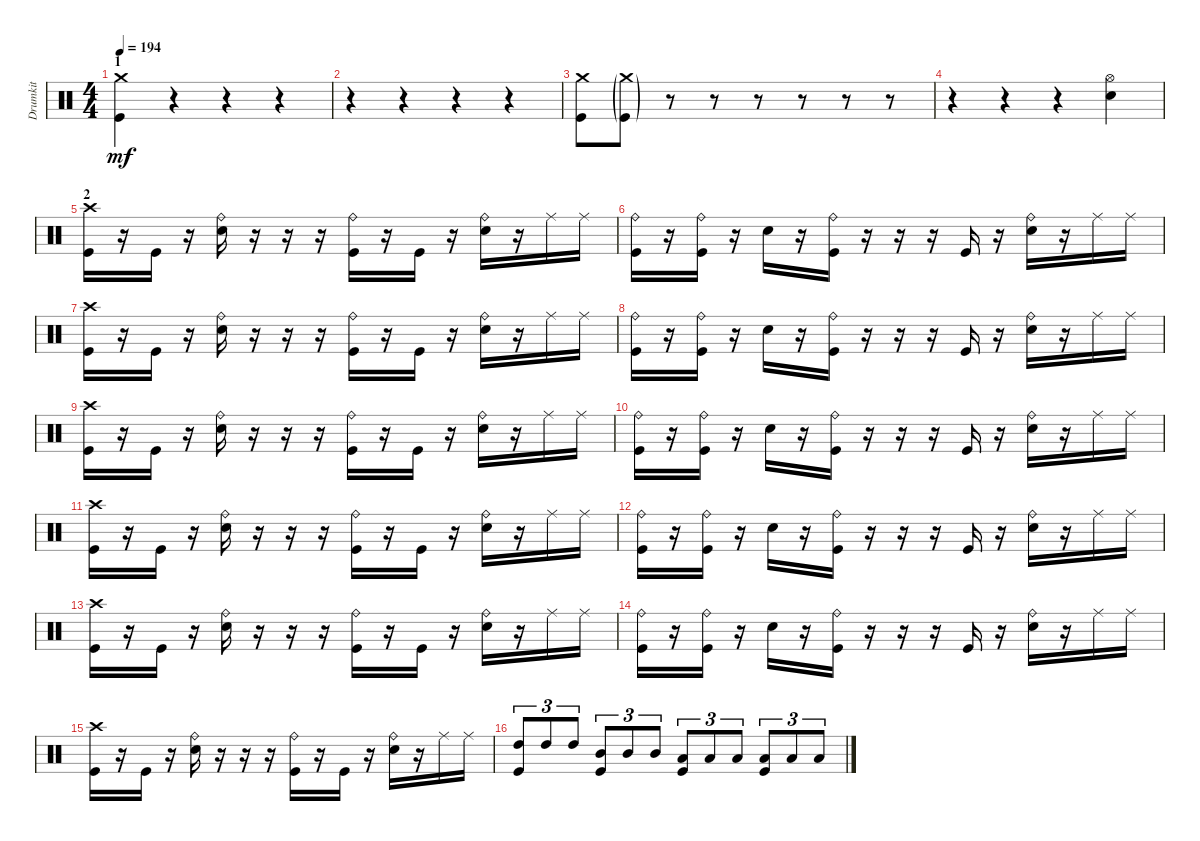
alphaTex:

\track ("Drumkit" "Drumkit") {instrument percussion}
\staff {score}
\articulation defaults
\ts (4 4)
\section ("" "1")
\tempo 194
\clef neutral
\ks c
("Kick (hit)" "Crash medium (hit)").4{dy mf} r.4 r.4 r.4 |
r.4 r.4 r.4 r.4 |
("Kick (hit)" "Crash medium (hit)").8 ("Kick (hit)"{g} "Crash medium (hit)"{g}).8 r.8 r.8 r.8 r.8 r.8 r.8 |
r.4 r.4 r.4 ("Snare (hit) 2" "Hi-Hat (open)").4 |
\section ("" "2")
("Kick (hit)" "Crash high (hit)").16 r.16 "Kick (hit)".16 r.16 ("Snare (hit) 2" "Ride (bell)").16 r.16 r.16 r.16 ("Ride (bell)" "Kick (hit)").16 r.16 "Kick (hit)".16 r.16 ("Ride (bell)" "Snare (hit) 2").16 r.16 "Ride (middle)".16 "Ride (middle)".16 |
("Kick (hit)" "Ride (bell)").16 r.16 ("Kick (hit)" "Ride (bell)").16 r.16 "Snare (hit) 2".16 r.16 ("Kick (hit)" "Ride (bell)").16 r.16 r.16 r.16 "Kick (hit)".16 r.16 ("Snare (hit) 2" "Ride (bell)").16 r.16 "Ride (middle)".16 "Ride (middle)".16 |
("Kick (hit)" "Crash high (hit)").16 r.16 "Kick (hit)".16 r.16 ("Snare (hit) 2" "Ride (bell)").16 r.16 r.16 r.16 ("Ride (bell)" "Kick (hit)").16 r.16 "Kick (hit)".16 r.16 ("Ride (bell)" "Snare (hit) 2").16 r.16 "Ride (middle)".16 "Ride (middle)".16 |
("Kick (hit)" "Ride (bell)").16 r.16 ("Kick (hit)" "Ride (bell)").16 r.16 "Snare (hit) 2".16 r.16 ("Kick (hit)" "Ride (bell)").16 r.16 r.16 r.16 "Kick (hit)".16 r.16 ("Snare (hit) 2" "Ride (bell)").16 r.16 "Ride (middle)".16 "Ride (middle)".16 |
("Kick (hit)" "Crash high (hit)").16 r.16 "Kick (hit)".16 r.16 ("Snare (hit) 2" "Ride (bell)").16 r.16 r.16 r.16 ("Ride (bell)" "Kick (hit)").16 r.16 "Kick (hit)".16 r.16 ("Ride (bell)" "Snare (hit) 2").16 r.16 "Ride (middle)".16 "Ride (middle)".16 |
("Kick (hit)" "Ride (bell)").16 r.16 ("Kick (hit)" "Ride (bell)").16 r.16 "Snare (hit) 2".16 r.16 ("Kick (hit)" "Ride (bell)").16 r.16 r.16 r.16 "Kick (hit)".16 r.16 ("Snare (hit) 2" "Ride (bell)").16 r.16 "Ride (middle)".16 "Ride (middle)".16 |
("Kick (hit)" "Crash high (hit)").16 r.16 "Kick (hit)".16 r.16 ("Snare (hit) 2" "Ride (bell)").16 r.16 r.16 r.16 ("Ride (bell)" "Kick (hit)").16 r.16 "Kick (hit)".16 r.16 ("Ride (bell)" "Snare (hit) 2").16 r.16 "Ride (middle)".16 "Ride (middle)".16 |
("Kick (hit)" "Ride (bell)").16 r.16 ("Kick (hit)" "Ride (bell)").16 r.16 "Snare (hit) 2".16 r.16 ("Kick (hit)" "Ride (bell)").16 r.16 r.16 r.16 "Kick (hit)".16 r.16 ("Snare (hit) 2" "Ride (bell)").16 r.16 "Ride (middle)".16 "Ride (middle)".16 |
("Kick (hit)" "Crash high (hit)").16 r.16 "Kick (hit)".16 r.16 ("Snare (hit) 2" "Ride (bell)").16 r.16 r.16 r.16 ("Ride (bell)" "Kick (hit)").16 r.16 "Kick (hit)".16 r.16 ("Ride (bell)" "Snare (hit) 2").16 r.16 "Ride (middle)".16 "Ride (middle)".16 |
("Kick (hit)" "Ride (bell)").16 r.16 ("Kick (hit)" "Ride (bell)").16 r.16 "Snare (hit) 2".16 r.16 ("Kick (hit)" "Ride (bell)").16 r.16 r.16 r.16 "Kick (hit)".16 r.16 ("Snare (hit) 2" "Ride (bell)").16 r.16 "Ride (middle)".16 "Ride (middle)".16 |
("Kick (hit)" "Crash high (hit)").16 r.16 "Kick (hit)".16 r.16 ("Snare (hit) 2" "Ride (bell)").16 r.16 r.16 r.16 ("Ride (bell)" "Kick (hit)").16 r.16 "Kick (hit)".16 r.16 ("Ride (bell)" "Snare (hit) 2").16 r.16 "Ride (middle)".16 "Ride (middle)".16 |
("High Tom (hit)" "Kick (hit)").8{tu (3 2)} "High Tom (hit)".8{tu (3 2)} "High Tom (hit)".8{tu (3 2)} ("Mid Tom (hit)" "Kick (hit)").8{tu (3 2)} "Mid Tom (hit)".8{tu (3 2)} "Mid Tom (hit)".8{tu (3 2)} ("Low Tom (hit)" "Kick (hit)").8{tu (3 2)} "Low Tom (hit)".8{tu (3 2)} "Low Tom (hit)".8{tu (3 2)} ("Low Floor Tom (hit)" "Kick (hit)").8{tu (3 2)} "Low Floor Tom (hit)".8{tu (3 2)} "Low Floor Tom (hit)".8{tu (3 2)}
